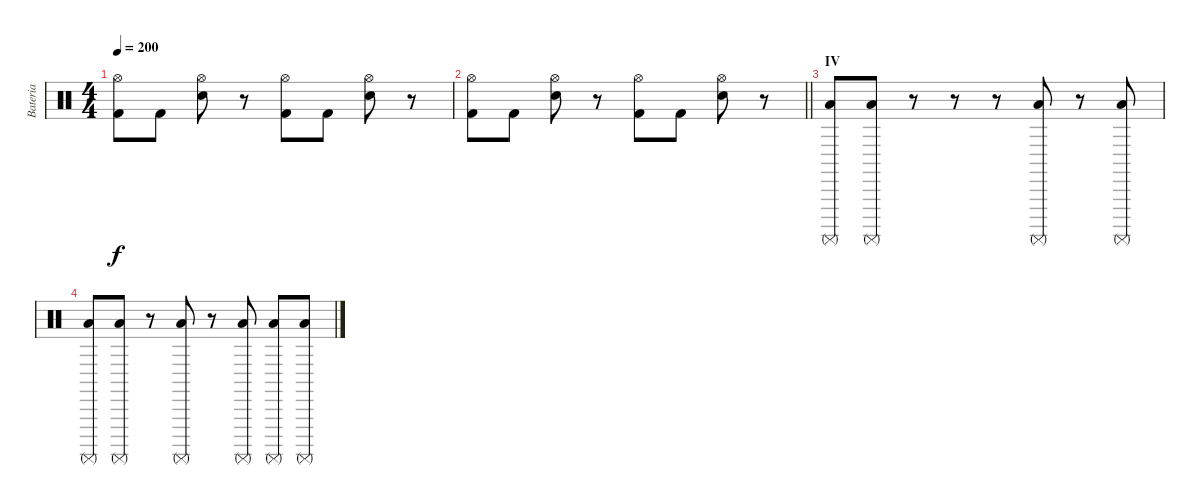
\track ("Bateria" "Bateria") {instrument percussion}
\staff {score}
\articulation defaults
\ts (4 4)
\tempo 200
\clef neutral
\ks c
("Kick (hit) 2" "Hi-Hat (open)").8{dy f} "Kick (hit) 2".8 ("Electric Snare (hit)" "Hi-Hat (open)").8 r.8 ("Kick (hit) 2" "Hi-Hat (open)").8 "Kick (hit) 2".8 ("Electric Snare (hit)" "Hi-Hat (open)").8 r.8 |
\barLineRight lightlight
("Kick (hit) 2" "Hi-Hat (open)").8 "Kick (hit) 2".8 ("Electric Snare (hit)" "Hi-Hat (open)").8 r.8 ("Kick (hit) 2" "Hi-Hat (open)").8 "Kick (hit) 2".8 ("Electric Snare (hit)" "Hi-Hat (open)").8 r.8 |
\section ("" "IV")
("Surdo (mute)" "Low Tom (hit)").8 ("Surdo (mute)" "Low Tom (hit)").8 r.8 r.8 r.8 ("Surdo (mute)" "Low Tom (hit)").8 r.8 ("Surdo (mute)" "Low Tom (hit)").8 |
("Surdo (mute)" "Low Tom (hit)").8 ("Surdo (mute)" "Low Tom (hit)").8 r.8 ("Surdo (mute)" "Low Tom (hit)").8 r.8 ("Surdo (mute)" "Low Tom (hit)").8 ("Surdo (mute)" "Low Tom (hit)").8 ("Surdo (mute)" "Low Tom (hit)").8
